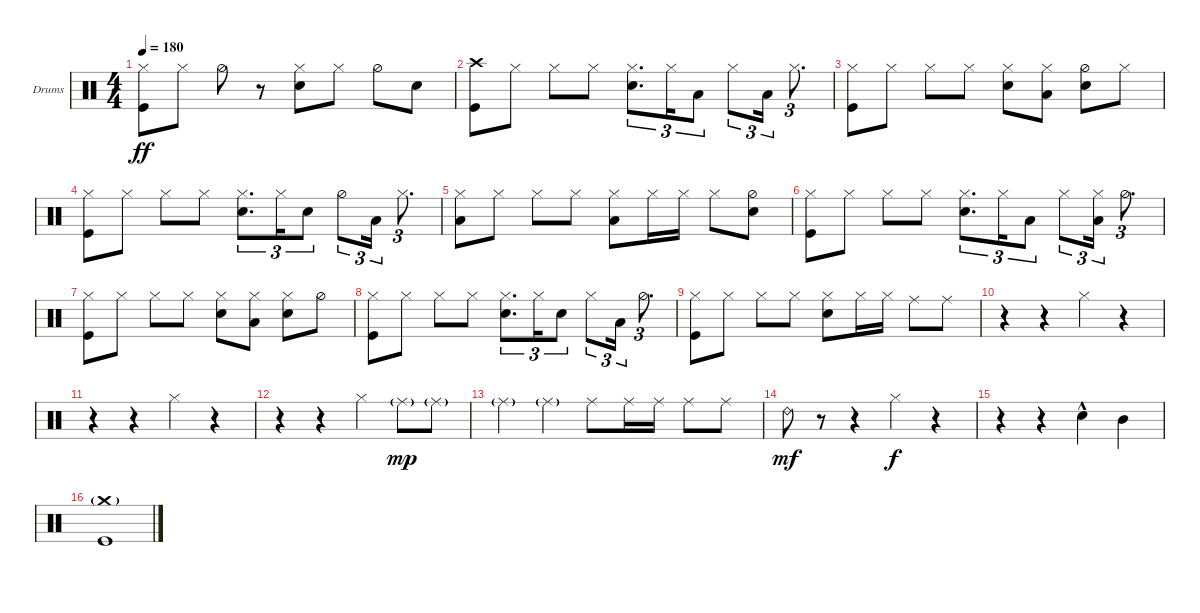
\defaultSystemsLayout 4
\bracketExtendMode groupsimilarinstruments
\firstSystemTrackNameOrientation horizontal
\otherSystemsTrackNameOrientation horizontal
\track ("Drumkit" "Drums") {instrument percussion}
\staff {score}
\articulation defaults
\ts (4 4)
\tempo 180
\clef neutral
\ks c
("Kick (hit)" "Hi-Hat (closed)").8{dy ff} "Hi-Hat (closed)".8 "Hi-Hat (half)".8 r.8 ("Snare (hit) 2" "Hi-Hat (closed)").8 "Hi-Hat (closed)".8 "Hi-Hat (half)".8 "Snare (hit) 2".8 |
("Kick (hit)" "Crash high (hit)").8 "Hi-Hat (closed)".8 "Hi-Hat (closed)".8 "Hi-Hat (closed)".8 ("Snare (hit) 2" "Hi-Hat (closed)").8{d tu (3 2)} "Hi-Hat (closed)".16{tu (3 2)} "Low Tom (hit)".8{tu (3 2)} "Hi-Hat (closed)".8{tu (3 2)} "Low Tom (hit)".16{tu (3 2)} "Hi-Hat (closed)".8{d tu (3 2)} |
("Kick (hit)" "Hi-Hat (closed)").8 "Hi-Hat (closed)".8 "Hi-Hat (closed)".8 "Hi-Hat (closed)".8 ("Snare (hit) 2" "Hi-Hat (closed)").8 ("Low Tom (hit)" "Hi-Hat (closed)").8 ("Snare (hit) 2" "Hi-Hat (half)").8 "Hi-Hat (closed)".8 |
("Kick (hit)" "Hi-Hat (closed)").8 "Hi-Hat (closed)".8 "Hi-Hat (closed)".8 "Hi-Hat (closed)".8 ("Snare (hit) 2" "Hi-Hat (closed)").8{d tu (3 2)} "Hi-Hat (closed)".16{tu (3 2)} "Snare (hit) 2".8{tu (3 2)} "Hi-Hat (half)".8{tu (3 2)} "Low Tom (hit)".16{tu (3 2)} "Hi-Hat (closed)".8{d tu (3 2)} |
("Low Tom (hit)" "Hi-Hat (closed)").8 "Hi-Hat (closed)".8 "Hi-Hat (closed)".8 "Hi-Hat (closed)".8 ("Low Tom (hit)" "Hi-Hat (closed)").8 "Hi-Hat (closed)".16 "Hi-Hat (closed)".16 "Hi-Hat (closed)".8 ("Snare (hit) 2" "Hi-Hat (half)").8 |
("Kick (hit)" "Hi-Hat (closed)").8 "Hi-Hat (closed)".8 "Hi-Hat (closed)".8 "Hi-Hat (closed)".8 ("Snare (hit) 2" "Hi-Hat (closed)").8{d tu (3 2)} "Hi-Hat (closed)".16{tu (3 2)} "Low Tom (hit)".8{tu (3 2)} "Hi-Hat (closed)".8{tu (3 2)} ("Low Tom (hit)" "Hi-Hat (closed)").16{tu (3 2)} "Hi-Hat (half)".8{d tu (3 2)} |
("Kick (hit)" "Hi-Hat (closed)").8 "Hi-Hat (closed)".8 "Hi-Hat (closed)".8 "Hi-Hat (closed)".8 ("Snare (hit) 2" "Hi-Hat (closed)").8 ("Low Tom (hit)" "Hi-Hat (closed)").8 ("Snare (hit) 2" "Hi-Hat (closed)").8 "Hi-Hat (half)".8 |
("Kick (hit)" "Hi-Hat (closed)").8 "Hi-Hat (closed)".8 "Hi-Hat (closed)".8 "Hi-Hat (closed)".8 ("Snare (hit) 2" "Hi-Hat (closed)").8{d tu (3 2)} "Hi-Hat (closed)".16{tu (3 2)} "Snare (hit) 2".8{tu (3 2)} "Hi-Hat (closed)".8{tu (3 2)} "Low Tom (hit)".16{tu (3 2)} "Hi-Hat (half)".8{d tu (3 2)} |
("Kick (hit)" "Hi-Hat (closed)").8 "Hi-Hat (closed)".8 "Hi-Hat (closed)".8 "Hi-Hat (closed)".8 ("Snare (hit) 2" "Hi-Hat (closed)").8 "Hi-Hat (closed)".16 "Hi-Hat (closed)".16 "Ride (middle)".8 "Ride (middle)".8 |
r.4 r.4 "Hi-Hat (closed)".4 r.4 |
r.4 r.4 "Hi-Hat (closed)".4 r.4 |
r.4 r.4 "Hi-Hat (closed)".4 "Ride (middle)"{g}.8{dy mp} "Ride (middle)"{g}.8 |
"Ride (middle)"{g}.4 "Ride (middle)"{g}.4 "Ride (middle)".8 "Ride (middle)".16 "Ride (middle)".16 "Ride (middle)".8 "Ride (middle)".8 |
"Ride (bell) 2".8{dy mf} r.8 r.4 "Hi-Hat (closed)".4{dy f} r.4 |
r.4 r.4 "Snare (hit) 2"{hac}.4 "Mid Tom (hit)".4 |
("Kick (hit)" "Crash medium (hit)"{g}).1
